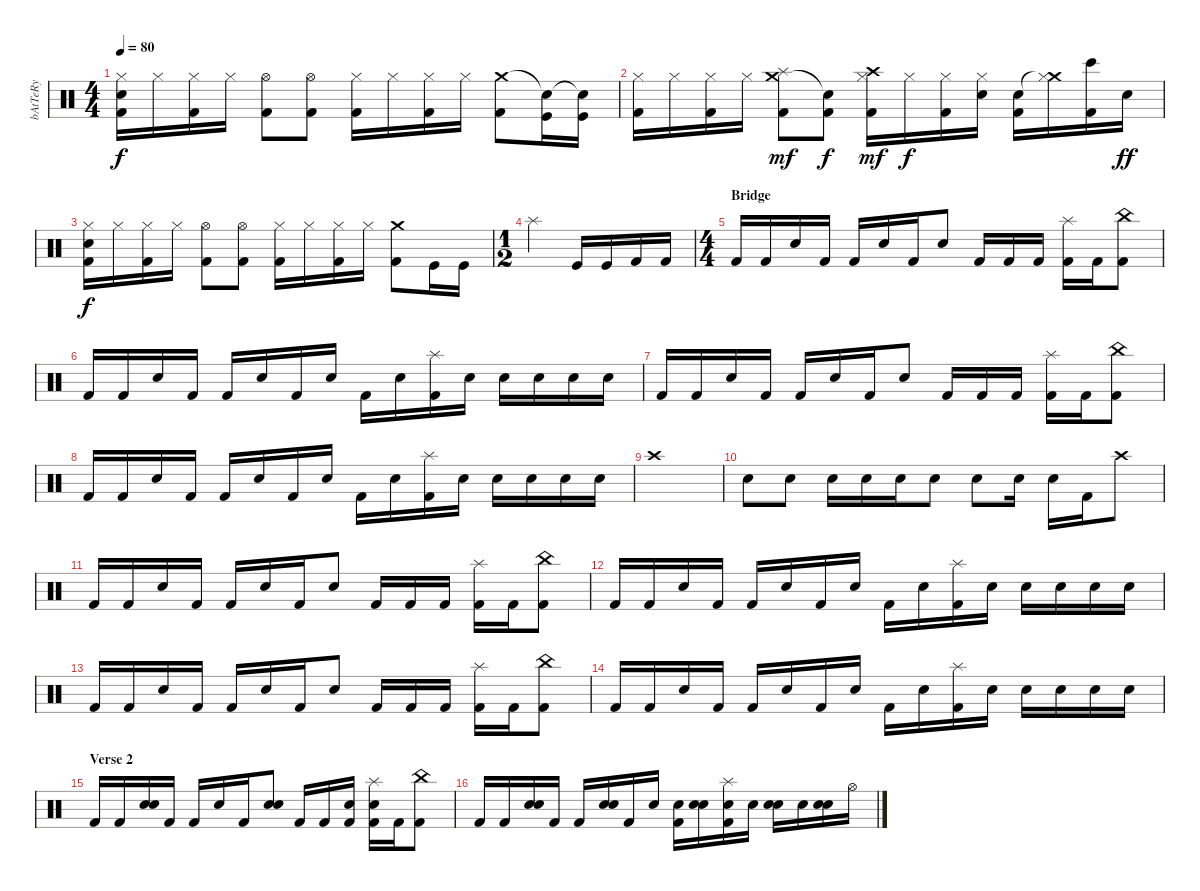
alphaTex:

\track ("bAtTeRy" "bAtTeRy") {instrument percussion}
\staff {score}
\articulation defaults
\ts (4 4)
\tempo 80
\clef neutral
\ks c
("Snare (hit) 2" "Hi-Hat (closed)" "Kick (hit) 2").16{dy f} "Hi-Hat (closed)".16 ("Hi-Hat (closed)" "Kick (hit) 2").16 "Hi-Hat (closed)".16 ("Hi-Hat (open)" "Kick (hit) 2").8 ("Hi-Hat (open)" "Kick (hit) 2").8 ("Hi-Hat (closed)" "Kick (hit) 2").16 "Hi-Hat (closed)".16 ("Hi-Hat (closed)" "Kick (hit) 2").16 "Hi-Hat (closed)".16 ("Crash medium (hit)" "Kick (hit) 2").8 ("Snare (hit)"{t} "Kick (hit)").16 ("Snare (hit)"{t} "Kick (hit)").16 |
("Hi-Hat (closed)" "Kick (hit) 2").16 "Hi-Hat (closed)".16 ("Hi-Hat (closed)" "Kick (hit) 2").16 "Hi-Hat (closed)".16 ("Crash medium (hit)" "Splash (hit)" "Kick (hit) 2").8{dy mf} ("Snare (hit)"{t} "Kick (hit) 2").8{dy f} ("Crash high (hit)" "Hi-Hat (closed)" "Kick (hit) 2").16{dy mf} "Hi-Hat (closed)".16{dy f} ("Hi-Hat (closed)" "Kick (hit) 2").16 ("Snare (hit) 2" "Hi-Hat (closed)").16 ("Snare (hit) 2" "Kick (hit) 2").16 ("Crash medium (hit)"{t} "Hi-Hat (closed)").16 ("Bongo High (hit)" "Kick (hit) 2").16 "Electric Snare (hit)".16{dy ff} |
("Snare (hit) 2" "Hi-Hat (closed)" "Kick (hit) 2").16{dy f} "Hi-Hat (closed)".16 ("Hi-Hat (closed)" "Kick (hit) 2").16 "Hi-Hat (closed)".16 ("Hi-Hat (open)" "Kick (hit) 2").8 ("Hi-Hat (open)" "Kick (hit) 2").8 ("Hi-Hat (closed)" "Kick (hit) 2").16 "Hi-Hat (closed)".16 ("Hi-Hat (closed)" "Kick (hit) 2").16 "Hi-Hat (closed)".16 ("Crash medium (hit)" "Kick (hit) 2").8 "Kick (hit)".16 "Kick (hit)".16 |
\ts (1 2)
"Splash (hit)".4 "Kick (hit)".16 "Kick (hit)".16 "Kick (hit) 2".16 "Kick (hit) 2".16 |
\ts (4 4)
\section ("" "Bridge")
"Kick (hit) 2".16 "Kick (hit) 2".16 "Electric Snare (hit)".16 "Kick (hit) 2".16 "Kick (hit) 2".16 "Electric Snare (hit)".16 "Kick (hit) 2".16 "Electric Snare (hit)".8 "Kick (hit) 2".16 "Kick (hit) 2".16 "Kick (hit) 2".16 ("Splash (hit)" "Kick (hit) 2").16 "Kick (hit) 2".16 ("China (hit)" "Kick (hit) 2").8 |
"Kick (hit) 2".16 "Kick (hit) 2".16 "Electric Snare (hit)".16 "Kick (hit) 2".16 "Kick (hit) 2".16 "Electric Snare (hit)".16 "Kick (hit) 2".16 "Electric Snare (hit)".16 "Kick (hit) 2".16 "Electric Snare (hit)".16 ("Splash (hit)" "Kick (hit) 2").16 "Electric Snare (hit)".16 "Electric Snare (hit)".16 "Electric Snare (hit)".16 "Electric Snare (hit)".16 "Electric Snare (hit)".16 |
"Kick (hit) 2".16 "Kick (hit) 2".16 "Electric Snare (hit)".16 "Kick (hit) 2".16 "Kick (hit) 2".16 "Electric Snare (hit)".16 "Kick (hit) 2".16 "Electric Snare (hit)".8 "Kick (hit) 2".16 "Kick (hit) 2".16 "Kick (hit) 2".16 ("Splash (hit)" "Kick (hit) 2").16 "Kick (hit) 2".16 ("China (hit)" "Kick (hit) 2").8 |
"Kick (hit) 2".16 "Kick (hit) 2".16 "Electric Snare (hit)".16 "Kick (hit) 2".16 "Kick (hit) 2".16 "Electric Snare (hit)".16 "Kick (hit) 2".16 "Electric Snare (hit)".16 "Kick (hit) 2".16 "Electric Snare (hit)".16 ("Splash (hit)" "Kick (hit) 2").16 "Electric Snare (hit)".16 "Electric Snare (hit)".16 "Electric Snare (hit)".16 "Electric Snare (hit)".16 "Electric Snare (hit)".16 |
"Crash high (hit)".1 |
"Electric Snare (hit)".8 "Electric Snare (hit)".8 "Electric Snare (hit)".16 "Electric Snare (hit)".16 "Electric Snare (hit)".16 "Electric Snare (hit)".8 "Electric Snare (hit)".8 "Electric Snare (hit)".16 "Electric Snare (hit)".16 "Kick (hit) 2".16 "Crash high (hit)".8 |
"Kick (hit) 2".16 "Kick (hit) 2".16 "Electric Snare (hit)".16 "Kick (hit) 2".16 "Kick (hit) 2".16 "Electric Snare (hit)".16 "Kick (hit) 2".16 "Electric Snare (hit)".8 "Kick (hit) 2".16 "Kick (hit) 2".16 "Kick (hit) 2".16 ("Splash (hit)" "Kick (hit) 2").16 "Kick (hit) 2".16 ("China (hit)" "Kick (hit) 2").8 |
"Kick (hit) 2".16 "Kick (hit) 2".16 "Electric Snare (hit)".16 "Kick (hit) 2".16 "Kick (hit) 2".16 "Electric Snare (hit)".16 "Kick (hit) 2".16 "Electric Snare (hit)".16 "Kick (hit) 2".16 "Electric Snare (hit)".16 ("Splash (hit)" "Kick (hit) 2").16 "Electric Snare (hit)".16 "Electric Snare (hit)".16 "Electric Snare (hit)".16 "Electric Snare (hit)".16 "Electric Snare (hit)".16 |
"Kick (hit) 2".16 "Kick (hit) 2".16 "Electric Snare (hit)".16 "Kick (hit) 2".16 "Kick (hit) 2".16 "Electric Snare (hit)".16 "Kick (hit) 2".16 "Electric Snare (hit)".8 "Kick (hit) 2".16 "Kick (hit) 2".16 "Kick (hit) 2".16 ("Splash (hit)" "Kick (hit) 2").16 "Kick (hit) 2".16 ("China (hit)" "Kick (hit) 2").8 |
"Kick (hit) 2".16 "Kick (hit) 2".16 "Electric Snare (hit)".16 "Kick (hit) 2".16 "Kick (hit) 2".16 "Electric Snare (hit)".16 "Kick (hit) 2".16 "Electric Snare (hit)".16 "Kick (hit) 2".16 "Electric Snare (hit)".16 ("Splash (hit)" "Kick (hit) 2").16 "Electric Snare (hit)".16 "Electric Snare (hit)".16 "Electric Snare (hit)".16 "Electric Snare (hit)".16 "Electric Snare (hit)".16 |
\section ("" "Verse 2")
"Kick (hit) 2".16 "Kick (hit) 2".16 ("Snare (hit) 2" "Electric Snare (hit)").16 "Kick (hit) 2".16 "Kick (hit) 2".16 "Electric Snare (hit)".16 "Kick (hit) 2".16 ("Snare (hit) 2" "Electric Snare (hit)").8 "Kick (hit) 2".16 "Kick (hit) 2".16 ("Snare (hit) 2" "Kick (hit) 2").16 ("Splash (hit)" "Snare (hit) 2" "Kick (hit) 2").16 "Kick (hit) 2".16 ("China (hit)" "Kick (hit) 2").8 |
"Kick (hit) 2".16 "Kick (hit) 2".16 ("Snare (hit) 2" "Electric Snare (hit)").16 "Kick (hit) 2".16 "Kick (hit) 2".16 ("Snare (hit) 2" "Electric Snare (hit)").16 "Kick (hit) 2".16 "Electric Snare (hit)".16 ("Snare (hit) 2" "Kick (hit) 2").16 ("Snare (hit) 2" "Electric Snare (hit)").16 ("Splash (hit)" "Snare (hit) 2" "Kick (hit) 2").16 "Electric Snare (hit)".16 ("Snare (hit) 2" "Electric Snare (hit)").16 "Electric Snare (hit)".16 ("Snare (hit) 2" "Electric Snare (hit)").16 "Hi-Hat (open)".16
